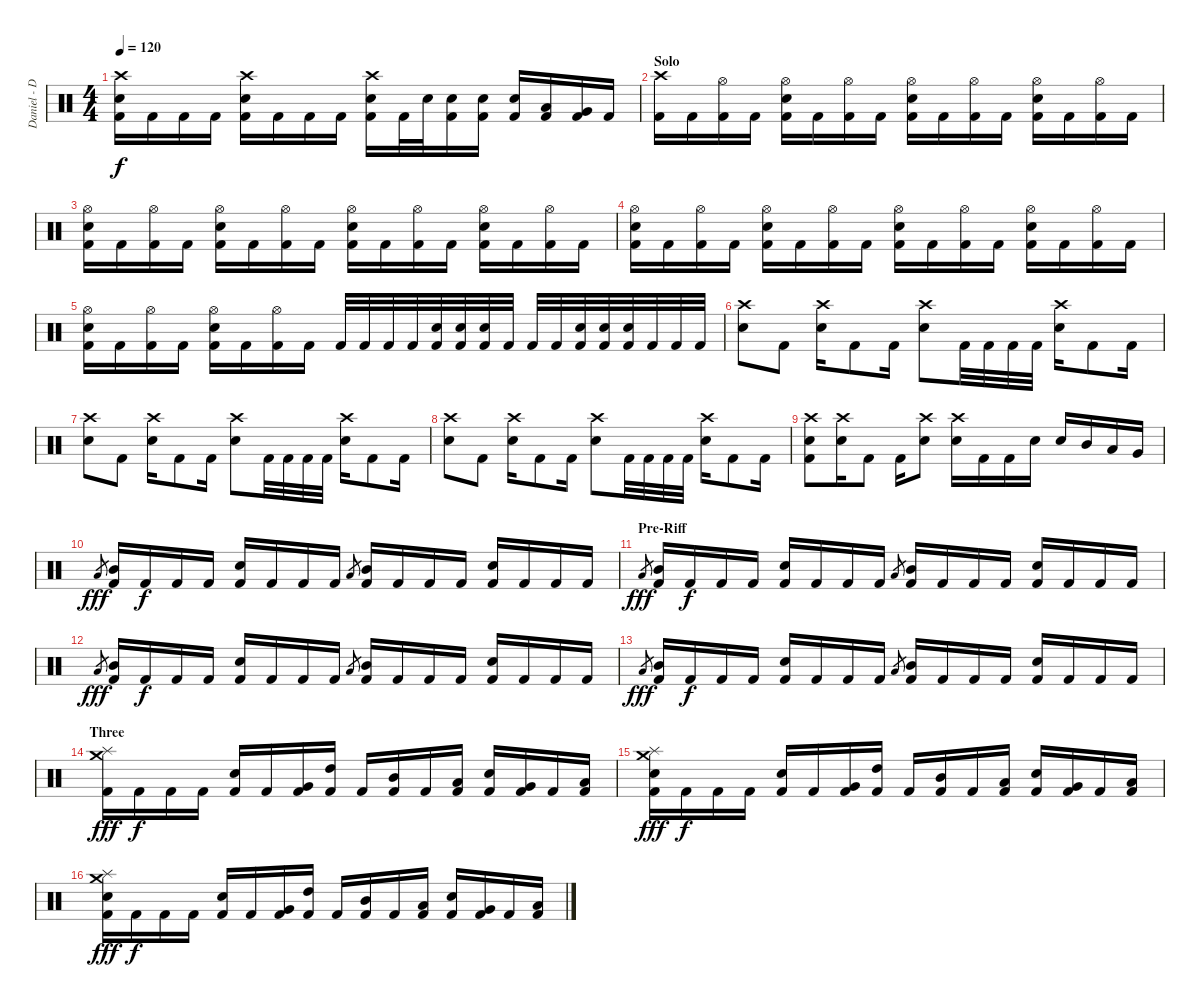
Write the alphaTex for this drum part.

\track ("Daniel - Drums" "Daniel - D") {instrument percussion}
\staff {score}
\articulation defaults
\ts (4 4)
\tempo 120
\clef neutral
\ks c
("Crash high (hit)" "Electric Snare (hit)" "Kick (hit) 2").16{dy f} "Kick (hit) 2".16 "Kick (hit) 2".16 "Kick (hit) 2".16 ("Crash high (hit)" "Electric Snare (hit)" "Kick (hit) 2").16 "Kick (hit) 2".16 "Kick (hit) 2".16 "Kick (hit) 2".16 ("Crash high (hit)" "Electric Snare (hit)" "Kick (hit) 2").16 "Kick (hit) 2".32 "Electric Snare (hit)".32 ("Electric Snare (hit)" "Kick (hit) 2").16 ("Electric Snare (hit)" "Kick (hit) 2").16 ("Electric Snare (hit)" "Kick (hit) 2").16 ("Low Tom (hit)" "Kick (hit) 2").16 ("Very Low Tom (hit)" "Kick (hit) 2").16 "Kick (hit) 2".16 |
\section ("" "Solo")
("Crash high (hit)" "Kick (hit) 2").16 "Kick (hit) 2".16 ("Hi-Hat (open)" "Kick (hit) 2").16 "Kick (hit) 2".16 ("Hi-Hat (open)" "Electric Snare (hit)" "Kick (hit) 2").16 "Kick (hit) 2".16 ("Hi-Hat (open)" "Kick (hit) 2").16 "Kick (hit) 2".16 ("Hi-Hat (open)" "Electric Snare (hit)" "Kick (hit) 2").16 "Kick (hit) 2".16 ("Hi-Hat (open)" "Kick (hit) 2").16 "Kick (hit) 2".16 ("Hi-Hat (open)" "Electric Snare (hit)" "Kick (hit) 2").16 "Kick (hit) 2".16 ("Hi-Hat (open)" "Kick (hit) 2").16 "Kick (hit) 2".16 |
("Hi-Hat (open)" "Electric Snare (hit)" "Kick (hit) 2").16 "Kick (hit) 2".16 ("Hi-Hat (open)" "Kick (hit) 2").16 "Kick (hit) 2".16 ("Hi-Hat (open)" "Electric Snare (hit)" "Kick (hit) 2").16 "Kick (hit) 2".16 ("Hi-Hat (open)" "Kick (hit) 2").16 "Kick (hit) 2".16 ("Hi-Hat (open)" "Electric Snare (hit)" "Kick (hit) 2").16 "Kick (hit) 2".16 ("Hi-Hat (open)" "Kick (hit) 2").16 "Kick (hit) 2".16 ("Hi-Hat (open)" "Electric Snare (hit)" "Kick (hit) 2").16 "Kick (hit) 2".16 ("Hi-Hat (open)" "Kick (hit) 2").16 "Kick (hit) 2".16 |
("Hi-Hat (open)" "Electric Snare (hit)" "Kick (hit) 2").16 "Kick (hit) 2".16 ("Hi-Hat (open)" "Kick (hit) 2").16 "Kick (hit) 2".16 ("Hi-Hat (open)" "Electric Snare (hit)" "Kick (hit) 2").16 "Kick (hit) 2".16 ("Hi-Hat (open)" "Kick (hit) 2").16 "Kick (hit) 2".16 ("Hi-Hat (open)" "Electric Snare (hit)" "Kick (hit) 2").16 "Kick (hit) 2".16 ("Hi-Hat (open)" "Kick (hit) 2").16 "Kick (hit) 2".16 ("Hi-Hat (open)" "Electric Snare (hit)" "Kick (hit) 2").16 "Kick (hit) 2".16 ("Hi-Hat (open)" "Kick (hit) 2").16 "Kick (hit) 2".16 |
("Hi-Hat (open)" "Electric Snare (hit)" "Kick (hit) 2").16 "Kick (hit) 2".16 ("Hi-Hat (open)" "Kick (hit) 2").16 "Kick (hit) 2".16 ("Hi-Hat (open)" "Electric Snare (hit)" "Kick (hit) 2").16 "Kick (hit) 2".16 ("Hi-Hat (open)" "Kick (hit) 2").16 "Kick (hit) 2".16 "Kick (hit) 2".32 "Kick (hit) 2".32 "Kick (hit) 2".32 "Kick (hit) 2".32 ("Electric Snare (hit)" "Kick (hit) 2").32 ("Electric Snare (hit)" "Kick (hit) 2").32 ("Electric Snare (hit)" "Kick (hit) 2").32 "Kick (hit) 2".32 "Kick (hit) 2".32 "Kick (hit) 2".32 ("Electric Snare (hit)" "Kick (hit) 2").32 ("Electric Snare (hit)" "Kick (hit) 2").32 ("Electric Snare (hit)" "Kick (hit) 2").32 "Kick (hit) 2".32 "Kick (hit) 2".32 "Kick (hit) 2".32 |
("Crash high (hit)" "Electric Snare (hit)").8 "Kick (hit) 2".8 ("Crash high (hit)" "Electric Snare (hit)").16 "Kick (hit) 2".8 "Kick (hit) 2".16 ("Crash high (hit)" "Electric Snare (hit)").8 "Kick (hit) 2".32 "Kick (hit) 2".32 "Kick (hit) 2".32 "Kick (hit) 2".32 ("Crash high (hit)" "Electric Snare (hit)").16 "Kick (hit) 2".8 "Kick (hit) 2".16 |
("Crash high (hit)" "Electric Snare (hit)").8 "Kick (hit) 2".8 ("Crash high (hit)" "Electric Snare (hit)").16 "Kick (hit) 2".8 "Kick (hit) 2".16 ("Crash high (hit)" "Electric Snare (hit)").8 "Kick (hit) 2".32 "Kick (hit) 2".32 "Kick (hit) 2".32 "Kick (hit) 2".32 ("Crash high (hit)" "Electric Snare (hit)").16 "Kick (hit) 2".8 "Kick (hit) 2".16 |
("Crash high (hit)" "Electric Snare (hit)").8 "Kick (hit) 2".8 ("Crash high (hit)" "Electric Snare (hit)").16 "Kick (hit) 2".8 "Kick (hit) 2".16 ("Crash high (hit)" "Electric Snare (hit)").8 "Kick (hit) 2".32 "Kick (hit) 2".32 "Kick (hit) 2".32 "Kick (hit) 2".32 ("Crash high (hit)" "Electric Snare (hit)").16 "Kick (hit) 2".8 "Kick (hit) 2".16 |
("Crash high (hit)" "Electric Snare (hit)" "Kick (hit) 2").8 ("Crash high (hit)" "Electric Snare (hit)").16 "Kick (hit) 2".8 "Kick (hit) 2".16 ("Crash high (hit)" "Electric Snare (hit)").8 ("Crash high (hit)" "Electric Snare (hit)").16 "Kick (hit) 2".16 "Kick (hit) 2".16 "Electric Snare (hit)".16 "Electric Snare (hit)".16 "Mid Tom (hit)".16 "Low Tom (hit)".16 "Very Low Tom (hit)".16 |
"Low Tom (hit)".8{gr dy fff} ("Mid Tom (hit)" "Kick (hit) 2").16 "Kick (hit) 2".16{dy f} "Kick (hit) 2".16 "Kick (hit) 2".16 ("Electric Snare (hit)" "Kick (hit) 2").16 "Kick (hit) 2".16 "Kick (hit) 2".16 "Kick (hit) 2".16 "Low Tom (hit)".8{gr} ("Mid Tom (hit)" "Kick (hit) 2").16 "Kick (hit) 2".16 "Kick (hit) 2".16 "Kick (hit) 2".16 ("Electric Snare (hit)" "Kick (hit) 2").16 "Kick (hit) 2".16 "Kick (hit) 2".16 "Kick (hit) 2".16 |
\section ("" "Pre-Riff")
"Low Tom (hit)".8{gr dy fff} ("Mid Tom (hit)" "Kick (hit) 2").16 "Kick (hit) 2".16{dy f} "Kick (hit) 2".16 "Kick (hit) 2".16 ("Electric Snare (hit)" "Kick (hit) 2").16 "Kick (hit) 2".16 "Kick (hit) 2".16 "Kick (hit) 2".16 "Low Tom (hit)".8{gr} ("Mid Tom (hit)" "Kick (hit) 2").16 "Kick (hit) 2".16 "Kick (hit) 2".16 "Kick (hit) 2".16 ("Electric Snare (hit)" "Kick (hit) 2").16 "Kick (hit) 2".16 "Kick (hit) 2".16 "Kick (hit) 2".16 |
"Low Tom (hit)".8{gr dy fff} ("Mid Tom (hit)" "Kick (hit) 2").16 "Kick (hit) 2".16{dy f} "Kick (hit) 2".16 "Kick (hit) 2".16 ("Electric Snare (hit)" "Kick (hit) 2").16 "Kick (hit) 2".16 "Kick (hit) 2".16 "Kick (hit) 2".16 "Low Tom (hit)".8{gr} ("Mid Tom (hit)" "Kick (hit) 2").16 "Kick (hit) 2".16 "Kick (hit) 2".16 "Kick (hit) 2".16 ("Electric Snare (hit)" "Kick (hit) 2").16 "Kick (hit) 2".16 "Kick (hit) 2".16 "Kick (hit) 2".16 |
"Low Tom (hit)".8{gr dy fff} ("Mid Tom (hit)" "Kick (hit) 2").16 "Kick (hit) 2".16{dy f} "Kick (hit) 2".16 "Kick (hit) 2".16 ("Electric Snare (hit)" "Kick (hit) 2").16 "Kick (hit) 2".16 "Kick (hit) 2".16 "Kick (hit) 2".16 "Low Tom (hit)".8{gr} ("Mid Tom (hit)" "Kick (hit) 2").16 "Kick (hit) 2".16 "Kick (hit) 2".16 "Kick (hit) 2".16 ("Electric Snare (hit)" "Kick (hit) 2").16 "Kick (hit) 2".16 "Kick (hit) 2".16 "Kick (hit) 2".16 |
\section ("" "Three")
("Crash medium (hit)" "Splash (hit)" "Kick (hit) 2").16{dy fff} "Kick (hit) 2".16{dy f} "Kick (hit) 2".16 "Kick (hit) 2".16 ("Electric Snare (hit)" "Kick (hit) 2").16 "Kick (hit) 2".16 ("Very Low Tom (hit)" "Kick (hit) 2").16 ("High Tom (hit)" "Kick (hit) 2").16 "Kick (hit) 2".16 ("Mid Tom (hit)" "Kick (hit) 2").16 "Kick (hit) 2".16 ("Low Tom (hit)" "Kick (hit) 2").16 ("Electric Snare (hit)" "Kick (hit) 2").16 ("Very Low Tom (hit)" "Kick (hit) 2").16 "Kick (hit) 2".16 ("Low Floor Tom (hit)" "Kick (hit) 2").16 |
("Crash medium (hit)" "Splash (hit)" "Electric Snare (hit)" "Kick (hit) 2").16{dy fff} "Kick (hit) 2".16{dy f} "Kick (hit) 2".16 "Kick (hit) 2".16 ("Electric Snare (hit)" "Kick (hit) 2").16 "Kick (hit) 2".16 ("Very Low Tom (hit)" "Kick (hit) 2").16 ("High Tom (hit)" "Kick (hit) 2").16 "Kick (hit) 2".16 ("Mid Tom (hit)" "Kick (hit) 2").16 "Kick (hit) 2".16 ("Low Tom (hit)" "Kick (hit) 2").16 ("Electric Snare (hit)" "Kick (hit) 2").16 ("Very Low Tom (hit)" "Kick (hit) 2").16 "Kick (hit) 2".16 ("Low Floor Tom (hit)" "Kick (hit) 2").16 |
("Crash medium (hit)" "Splash (hit)" "Electric Snare (hit)" "Kick (hit) 2").16{dy fff} "Kick (hit) 2".16{dy f} "Kick (hit) 2".16 "Kick (hit) 2".16 ("Electric Snare (hit)" "Kick (hit) 2").16 "Kick (hit) 2".16 ("Very Low Tom (hit)" "Kick (hit) 2").16 ("High Tom (hit)" "Kick (hit) 2").16 "Kick (hit) 2".16 ("Mid Tom (hit)" "Kick (hit) 2").16 "Kick (hit) 2".16 ("Low Tom (hit)" "Kick (hit) 2").16 ("Electric Snare (hit)" "Kick (hit) 2").16 ("Very Low Tom (hit)" "Kick (hit) 2").16 "Kick (hit) 2".16 ("Low Floor Tom (hit)" "Kick (hit) 2").16
